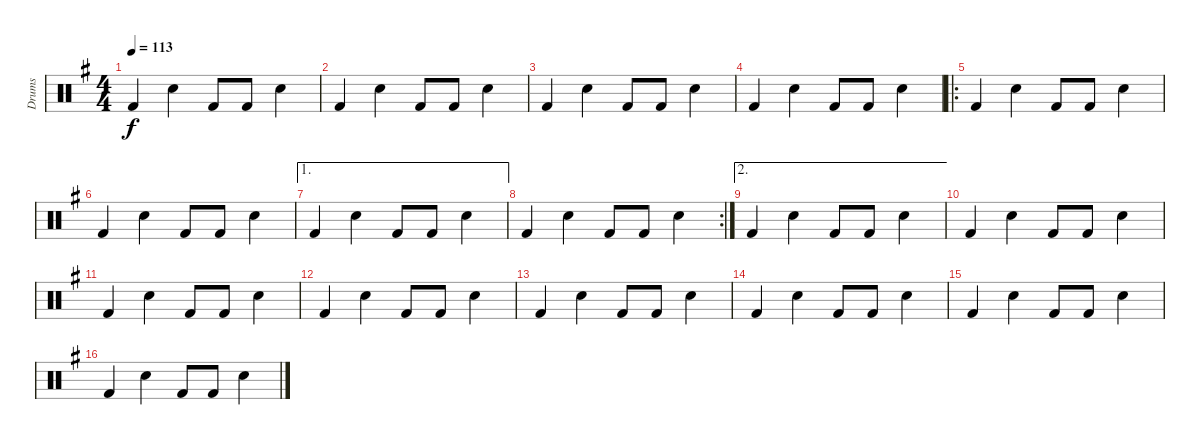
\track ("Drums" "Drums") {instrument percussion}
\staff {score}
\articulation defaults
\ts (4 4)
\tempo 113
\clef neutral
\ks g "Kick (hit) 2".4{dy f} "Electric Snare (hit)".4 "Kick (hit) 2".8 "Kick (hit) 2".8 "Electric Snare (hit)".4
|
"Kick (hit) 2".4 "Electric Snare (hit)".4 "Kick (hit) 2".8 "Kick (hit) 2".8 "Electric Snare (hit)".4 |
"Kick (hit) 2".4 "Electric Snare (hit)".4 "Kick (hit) 2".8 "Kick (hit) 2".8 "Electric Snare (hit)".4 |
"Kick (hit) 2".4 "Electric Snare (hit)".4 "Kick (hit) 2".8 "Kick (hit) 2".8 "Electric Snare (hit)".4 |
\ro "Kick (hit) 2".4 "Electric Snare (hit)".4 "Kick (hit) 2".8 "Kick (hit) 2".8 "Electric Snare (hit)".4
|
"Kick (hit) 2".4 "Electric Snare (hit)".4 "Kick (hit) 2".8 "Kick (hit) 2".8 "Electric Snare (hit)".4 |
\ae 1 "Kick (hit) 2".4 "Electric Snare (hit)".4 "Kick (hit) 2".8 "Kick (hit) 2".8 "Electric Snare (hit)".4
|
\rc 2 "Kick (hit) 2".4 "Electric Snare (hit)".4 "Kick (hit) 2".8 "Kick (hit) 2".8 "Electric Snare (hit)".4
|
\ae 2 "Kick (hit) 2".4 "Electric Snare (hit)".4 "Kick (hit) 2".8 "Kick (hit) 2".8 "Electric Snare (hit)".4
|
"Kick (hit) 2".4 "Electric Snare (hit)".4 "Kick (hit) 2".8 "Kick (hit) 2".8 "Electric Snare (hit)".4 |
"Kick (hit) 2".4 "Electric Snare (hit)".4 "Kick (hit) 2".8 "Kick (hit) 2".8 "Electric Snare (hit)".4 |
"Kick (hit) 2".4 "Electric Snare (hit)".4 "Kick (hit) 2".8 "Kick (hit) 2".8 "Electric Snare (hit)".4 |
"Kick (hit) 2".4 "Electric Snare (hit)".4 "Kick (hit) 2".8 "Kick (hit) 2".8 "Electric Snare (hit)".4 |
"Kick (hit) 2".4 "Electric Snare (hit)".4 "Kick (hit) 2".8 "Kick (hit) 2".8 "Electric Snare (hit)".4 |
"Kick (hit) 2".4 "Electric Snare (hit)".4 "Kick (hit) 2".8 "Kick (hit) 2".8 "Electric Snare (hit)".4 |
"Kick (hit) 2".4 "Electric Snare (hit)".4 "Kick (hit) 2".8 "Kick (hit) 2".8 "Electric Snare (hit)".4
